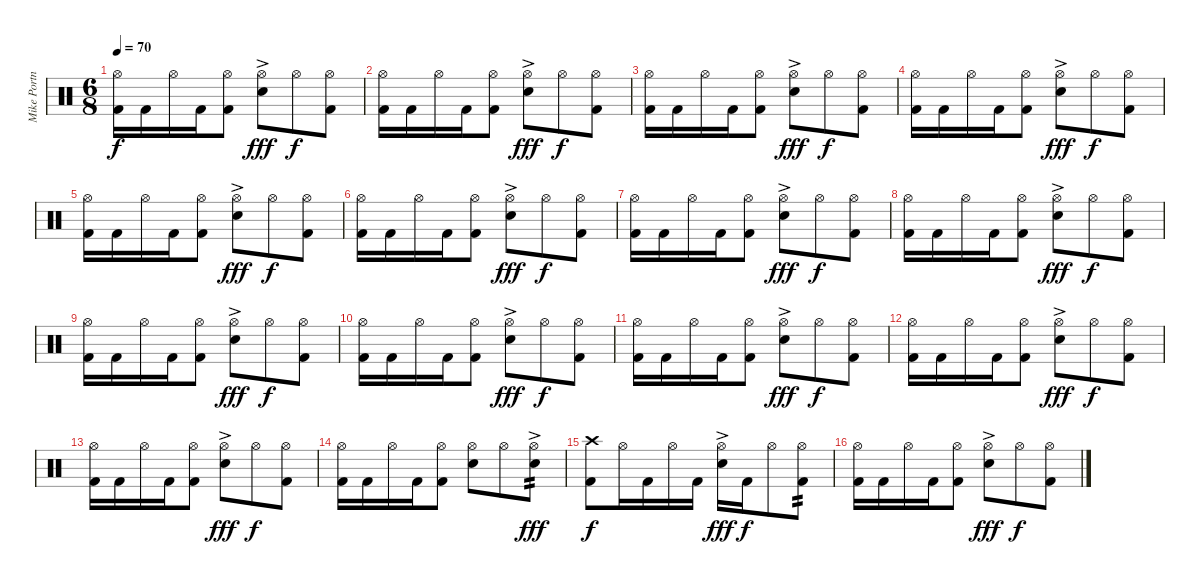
\track ("Mike Portnoy" "Mike Portn") {instrument percussion}
\staff {score}
\articulation defaults
\ts (6 8)
\tempo 70
\clef neutral
\ks c
("Hi-Hat (open)" "Kick (hit) 2").16{dy f} "Kick (hit) 2".16 "Hi-Hat (open)".16 "Kick (hit) 2".16 ("Hi-Hat (open)" "Kick (hit) 2").8 ("Hi-Hat (open)" "Snare (hit) 2"{ac}).8{dy fff} "Hi-Hat (open)".8{dy f} ("Hi-Hat (open)" "Kick (hit) 2").8 |
("Hi-Hat (open)" "Kick (hit) 2").16 "Kick (hit) 2".16 "Hi-Hat (open)".16 "Kick (hit) 2".16 ("Hi-Hat (open)" "Kick (hit) 2").8 ("Hi-Hat (open)" "Snare (hit) 2"{ac}).8{dy fff} "Hi-Hat (open)".8{dy f} ("Hi-Hat (open)" "Kick (hit) 2").8 |
("Hi-Hat (open)" "Kick (hit) 2").16 "Kick (hit) 2".16 "Hi-Hat (open)".16 "Kick (hit) 2".16 ("Hi-Hat (open)" "Kick (hit) 2").8 ("Hi-Hat (open)" "Snare (hit) 2"{ac}).8{dy fff} "Hi-Hat (open)".8{dy f} ("Hi-Hat (open)" "Kick (hit) 2").8 |
("Hi-Hat (open)" "Kick (hit) 2").16 "Kick (hit) 2".16 "Hi-Hat (open)".16 "Kick (hit) 2".16 ("Hi-Hat (open)" "Kick (hit) 2").8 ("Hi-Hat (open)" "Snare (hit) 2"{ac}).8{dy fff} "Hi-Hat (open)".8{dy f} ("Hi-Hat (open)" "Kick (hit) 2").8 |
("Hi-Hat (open)" "Kick (hit) 2").16 "Kick (hit) 2".16 "Hi-Hat (open)".16 "Kick (hit) 2".16 ("Hi-Hat (open)" "Kick (hit) 2").8 ("Hi-Hat (open)" "Snare (hit) 2"{ac}).8{dy fff} "Hi-Hat (open)".8{dy f} ("Hi-Hat (open)" "Kick (hit) 2").8 |
("Hi-Hat (open)" "Kick (hit) 2").16 "Kick (hit) 2".16 "Hi-Hat (open)".16 "Kick (hit) 2".16 ("Hi-Hat (open)" "Kick (hit) 2").8 ("Hi-Hat (open)" "Snare (hit) 2"{ac}).8{dy fff} "Hi-Hat (open)".8{dy f} ("Hi-Hat (open)" "Kick (hit) 2").8 |
("Hi-Hat (open)" "Kick (hit) 2").16 "Kick (hit) 2".16 "Hi-Hat (open)".16 "Kick (hit) 2".16 ("Hi-Hat (open)" "Kick (hit) 2").8 ("Hi-Hat (open)" "Snare (hit) 2"{ac}).8{dy fff} "Hi-Hat (open)".8{dy f} ("Hi-Hat (open)" "Kick (hit) 2").8 |
("Hi-Hat (open)" "Kick (hit) 2").16 "Kick (hit) 2".16 "Hi-Hat (open)".16 "Kick (hit) 2".16 ("Hi-Hat (open)" "Kick (hit) 2").8 ("Hi-Hat (open)" "Snare (hit) 2"{ac}).8{dy fff} "Hi-Hat (open)".8{dy f} ("Hi-Hat (open)" "Kick (hit) 2").8 |
("Hi-Hat (open)" "Kick (hit) 2").16 "Kick (hit) 2".16 "Hi-Hat (open)".16 "Kick (hit) 2".16 ("Hi-Hat (open)" "Kick (hit) 2").8 ("Hi-Hat (open)" "Snare (hit) 2"{ac}).8{dy fff} "Hi-Hat (open)".8{dy f} ("Hi-Hat (open)" "Kick (hit) 2").8 |
("Hi-Hat (open)" "Kick (hit) 2").16 "Kick (hit) 2".16 "Hi-Hat (open)".16 "Kick (hit) 2".16 ("Hi-Hat (open)" "Kick (hit) 2").8 ("Hi-Hat (open)" "Snare (hit) 2"{ac}).8{dy fff} "Hi-Hat (open)".8{dy f} ("Hi-Hat (open)" "Kick (hit) 2").8 |
("Hi-Hat (open)" "Kick (hit) 2").16 "Kick (hit) 2".16 "Hi-Hat (open)".16 "Kick (hit) 2".16 ("Hi-Hat (open)" "Kick (hit) 2").8 ("Hi-Hat (open)" "Snare (hit) 2"{ac}).8{dy fff} "Hi-Hat (open)".8{dy f} ("Hi-Hat (open)" "Kick (hit) 2").8 |
("Hi-Hat (open)" "Kick (hit) 2").16 "Kick (hit) 2".16 "Hi-Hat (open)".16 "Kick (hit) 2".16 ("Hi-Hat (open)" "Kick (hit) 2").8 ("Hi-Hat (open)" "Snare (hit) 2"{ac}).8{dy fff} "Hi-Hat (open)".8{dy f} ("Hi-Hat (open)" "Kick (hit) 2").8 |
("Hi-Hat (open)" "Kick (hit) 2").16 "Kick (hit) 2".16 "Hi-Hat (open)".16 "Kick (hit) 2".16 ("Hi-Hat (open)" "Kick (hit) 2").8 ("Hi-Hat (open)" "Snare (hit) 2"{ac}).8{dy fff} "Hi-Hat (open)".8{dy f} ("Hi-Hat (open)" "Kick (hit) 2").8 |
("Hi-Hat (open)" "Kick (hit) 2").16 "Kick (hit) 2".16 "Hi-Hat (open)".16 "Kick (hit) 2".16 ("Hi-Hat (open)" "Kick (hit) 2").8 ("Hi-Hat (open)" "Snare (hit) 2").8 "Hi-Hat (open)".8 ("Hi-Hat (open)" "Snare (hit) 2"{ac}).8{tp 2 dy fff} |
("Crash high (hit)" "Kick (hit) 2").8{dy f} "Hi-Hat (open)".16 "Kick (hit) 2".16 "Hi-Hat (open)".16 "Kick (hit) 2".16 ("Hi-Hat (open)" "Snare (hit) 2"{ac}).16{dy fff} "Kick (hit) 2".16{dy f} "Hi-Hat (open)".8 ("Hi-Hat (open)" "Kick (hit) 2").8{tp 2} |
("Hi-Hat (open)" "Kick (hit) 2").16 "Kick (hit) 2".16 "Hi-Hat (open)".16 "Kick (hit) 2".16 ("Hi-Hat (open)" "Kick (hit) 2").8 ("Hi-Hat (open)" "Snare (hit) 2"{ac}).8{dy fff} "Hi-Hat (open)".8{dy f} ("Hi-Hat (open)" "Kick (hit) 2").8
